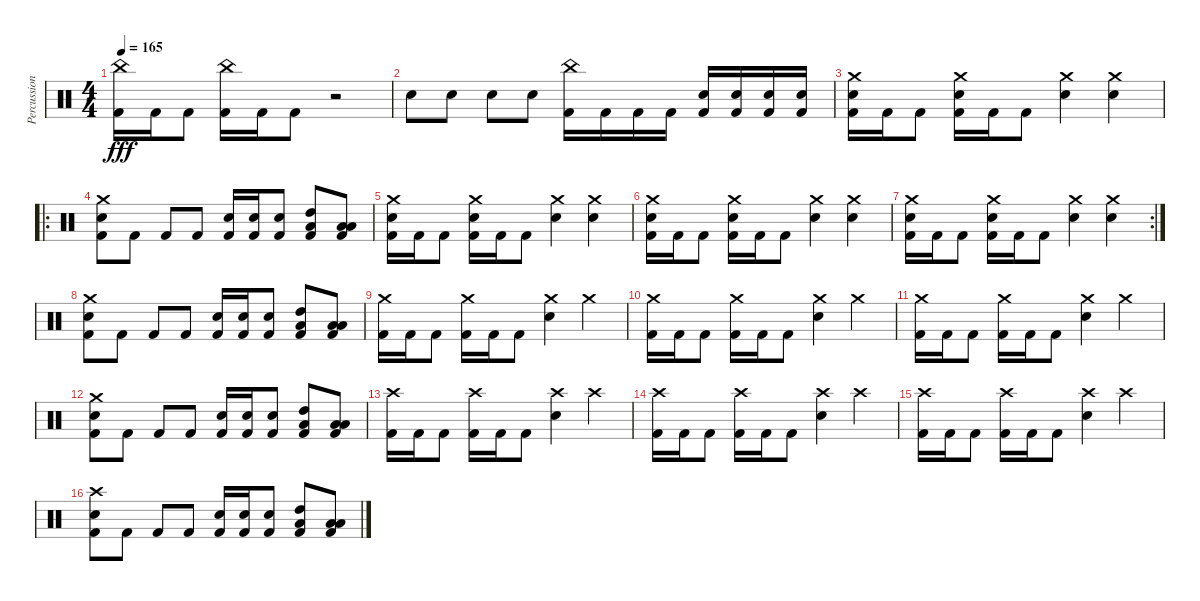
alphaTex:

\track ("Percussion" "Percussion") {instrument percussion}
\staff {score}
\articulation defaults
\ts (4 4)
\tempo 165
\clef neutral
\ks c
("China (hit)" "Kick (hit) 2").16{dy fff} "Kick (hit) 2".16 "Kick (hit) 2".8 ("China (hit)" "Kick (hit) 2").16 "Kick (hit) 2".16 "Kick (hit) 2".8 r.2 |
"Electric Snare (hit)".8 "Electric Snare (hit)".8 "Electric Snare (hit)".8 "Electric Snare (hit)".8 ("China (hit)" "Kick (hit) 2").16 "Kick (hit) 2".16 "Kick (hit) 2".16 "Kick (hit) 2".16 ("Electric Snare (hit)" "Kick (hit) 2").16 ("Electric Snare (hit)" "Kick (hit) 2").16 ("Electric Snare (hit)" "Kick (hit) 2").16 ("Electric Snare (hit)" "Kick (hit) 2").16 |
("Crash medium (hit)" "Electric Snare (hit)" "Kick (hit) 2").16 "Kick (hit) 2".16 "Kick (hit) 2".8 ("Crash medium (hit)" "Electric Snare (hit)" "Kick (hit) 2").16 "Kick (hit) 2".16 "Kick (hit) 2".8 ("Crash medium (hit)" "Electric Snare (hit)").4 ("Crash medium (hit)" "Electric Snare (hit)").4 |
\ro
("Crash medium (hit)" "Electric Snare (hit)" "Kick (hit) 2").8 "Kick (hit) 2".8 "Kick (hit) 2".8 "Kick (hit) 2".8 ("Electric Snare (hit)" "Kick (hit) 2").16 ("Electric Snare (hit)" "Kick (hit) 2").16 ("Electric Snare (hit)" "Kick (hit) 2").8 ("Low Tom (hit)" "High Tom (hit)" "Kick (hit) 2").8 ("Low Floor Tom (hit)" "Low Tom (hit)" "Kick (hit) 2").8 |
("Crash medium (hit)" "Electric Snare (hit)" "Kick (hit) 2").16 "Kick (hit) 2".16 "Kick (hit) 2".8 ("Crash medium (hit)" "Electric Snare (hit)" "Kick (hit) 2").16 "Kick (hit) 2".16 "Kick (hit) 2".8 ("Crash medium (hit)" "Electric Snare (hit)").4 ("Crash medium (hit)" "Electric Snare (hit)").4 |
("Crash medium (hit)" "Electric Snare (hit)" "Kick (hit) 2").16 "Kick (hit) 2".16 "Kick (hit) 2".8 ("Crash medium (hit)" "Electric Snare (hit)" "Kick (hit) 2").16 "Kick (hit) 2".16 "Kick (hit) 2".8 ("Crash medium (hit)" "Electric Snare (hit)").4 ("Crash medium (hit)" "Electric Snare (hit)").4 |
\rc 2
("Crash medium (hit)" "Electric Snare (hit)" "Kick (hit) 2").16 "Kick (hit) 2".16 "Kick (hit) 2".8 ("Crash medium (hit)" "Electric Snare (hit)" "Kick (hit) 2").16 "Kick (hit) 2".16 "Kick (hit) 2".8 ("Crash medium (hit)" "Electric Snare (hit)").4 ("Crash medium (hit)" "Electric Snare (hit)").4 |
("Crash medium (hit)" "Electric Snare (hit)" "Kick (hit) 2").8 "Kick (hit) 2".8 "Kick (hit) 2".8 "Kick (hit) 2".8 ("Electric Snare (hit)" "Kick (hit) 2").16 ("Electric Snare (hit)" "Kick (hit) 2").16 ("Electric Snare (hit)" "Kick (hit) 2").8 ("Low Tom (hit)" "High Tom (hit)" "Kick (hit) 2").8 ("Low Floor Tom (hit)" "Low Tom (hit)" "Kick (hit) 2").8 |
("Crash medium (hit)" "Kick (hit) 2").16 "Kick (hit) 2".16 "Kick (hit) 2".8 ("Crash medium (hit)" "Kick (hit) 2").16 "Kick (hit) 2".16 "Kick (hit) 2".8 ("Crash medium (hit)" "Electric Snare (hit)").4 "Crash medium (hit)".4 |
("Crash medium (hit)" "Kick (hit) 2").16 "Kick (hit) 2".16 "Kick (hit) 2".8 ("Crash medium (hit)" "Kick (hit) 2").16 "Kick (hit) 2".16 "Kick (hit) 2".8 ("Crash medium (hit)" "Electric Snare (hit)").4 "Crash medium (hit)".4 |
("Crash medium (hit)" "Kick (hit) 2").16 "Kick (hit) 2".16 "Kick (hit) 2".8 ("Crash medium (hit)" "Kick (hit) 2").16 "Kick (hit) 2".16 "Kick (hit) 2".8 ("Crash medium (hit)" "Electric Snare (hit)").4 "Crash medium (hit)".4 |
("Crash medium (hit)" "Electric Snare (hit)" "Kick (hit) 2").8 "Kick (hit) 2".8 "Kick (hit) 2".8 "Kick (hit) 2".8 ("Electric Snare (hit)" "Kick (hit) 2").16 ("Electric Snare (hit)" "Kick (hit) 2").16 ("Electric Snare (hit)" "Kick (hit) 2").8 ("Low Tom (hit)" "High Tom (hit)" "Kick (hit) 2").8 ("Low Floor Tom (hit)" "Low Tom (hit)" "Kick (hit) 2").8 |
("Crash high (hit)" "Kick (hit) 2").16 "Kick (hit) 2".16 "Kick (hit) 2".8 ("Crash high (hit)" "Kick (hit) 2").16 "Kick (hit) 2".16 "Kick (hit) 2".8 ("Crash high (hit)" "Electric Snare (hit)").4 "Crash high (hit)".4 |
("Crash high (hit)" "Kick (hit) 2").16 "Kick (hit) 2".16 "Kick (hit) 2".8 ("Crash high (hit)" "Kick (hit) 2").16 "Kick (hit) 2".16 "Kick (hit) 2".8 ("Crash high (hit)" "Electric Snare (hit)").4 "Crash high (hit)".4 |
("Crash high (hit)" "Kick (hit) 2").16 "Kick (hit) 2".16 "Kick (hit) 2".8 ("Crash high (hit)" "Kick (hit) 2").16 "Kick (hit) 2".16 "Kick (hit) 2".8 ("Crash high (hit)" "Electric Snare (hit)").4 "Crash high (hit)".4 |
("Crash high (hit)" "Electric Snare (hit)" "Kick (hit) 2").8 "Kick (hit) 2".8 "Kick (hit) 2".8 "Kick (hit) 2".8 ("Electric Snare (hit)" "Kick (hit) 2").16 ("Electric Snare (hit)" "Kick (hit) 2").16 ("Electric Snare (hit)" "Kick (hit) 2").8 ("Low Tom (hit)" "High Tom (hit)" "Kick (hit) 2").8 ("Low Floor Tom (hit)" "Low Tom (hit)" "Kick (hit) 2").8
